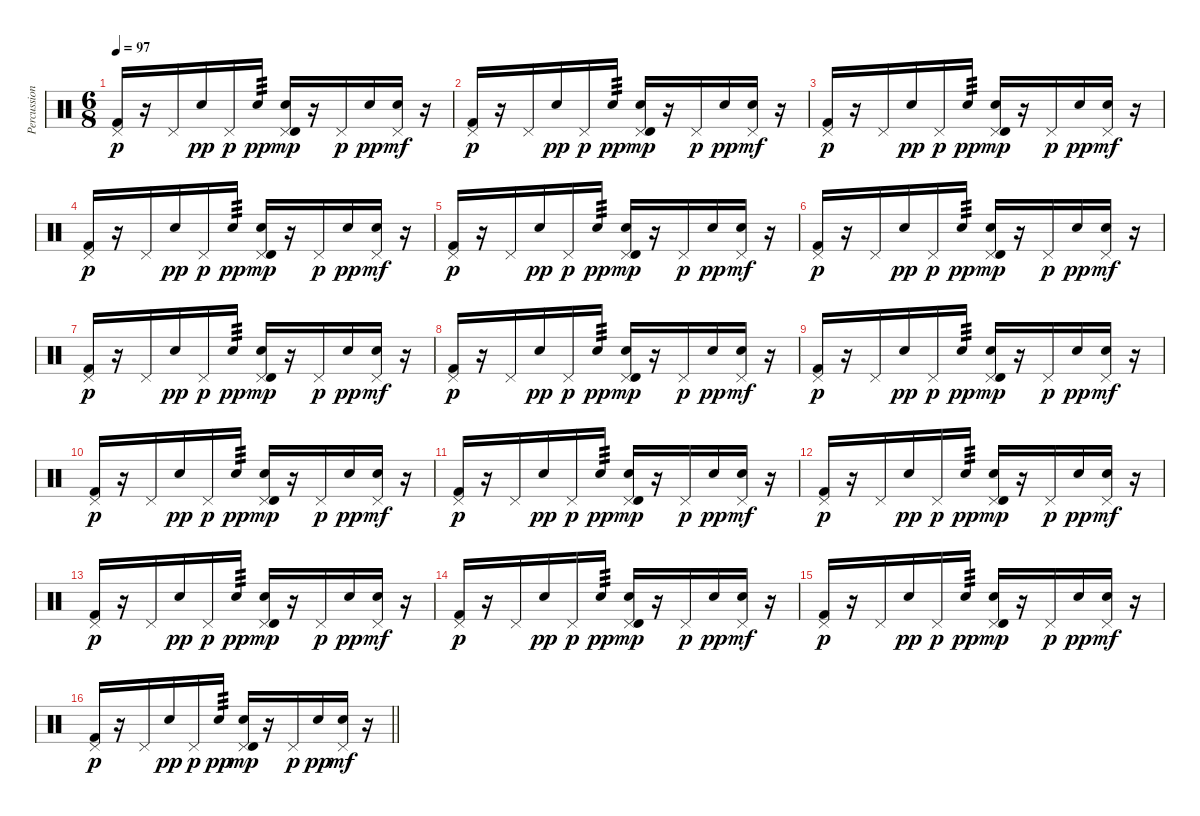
\track ("Percussion" "Percussion") {instrument percussion}
\staff {score}
\articulation defaults
\ts (6 8)
\tempo 97
\clef neutral
\ks c
("Pedal Hi-Hat (hit)" "Kick (hit) 2").16{dy p} r.16 "Pedal Hi-Hat (hit)".16 "Electric Snare (hit)".16{dy pp} "Pedal Hi-Hat (hit)".16{dy p} "Electric Snare (hit)".16{tp 3 dy pp} ("Pedal Hi-Hat (hit)" "Timbale high (hit)" "Electric Snare (hit)").16{dy mp} r.16 "Pedal Hi-Hat (hit)".16{dy p} "Snare (hit) 2".16{dy pp} ("Pedal Hi-Hat (hit)" "Electric Snare (hit)").16{dy mf} r.16 |
("Pedal Hi-Hat (hit)" "Kick (hit) 2").16{dy p} r.16 "Pedal Hi-Hat (hit)".16 "Electric Snare (hit)".16{dy pp} "Pedal Hi-Hat (hit)".16{dy p} "Electric Snare (hit)".16{tp 3 dy pp} ("Pedal Hi-Hat (hit)" "Timbale high (hit)" "Electric Snare (hit)").16{dy mp} r.16 "Pedal Hi-Hat (hit)".16{dy p} "Snare (hit) 2".16{dy pp} ("Pedal Hi-Hat (hit)" "Electric Snare (hit)").16{dy mf} r.16 |
("Pedal Hi-Hat (hit)" "Kick (hit) 2").16{dy p} r.16 "Pedal Hi-Hat (hit)".16 "Electric Snare (hit)".16{dy pp} "Pedal Hi-Hat (hit)".16{dy p} "Electric Snare (hit)".16{tp 3 dy pp} ("Pedal Hi-Hat (hit)" "Timbale high (hit)" "Electric Snare (hit)").16{dy mp} r.16 "Pedal Hi-Hat (hit)".16{dy p} "Snare (hit) 2".16{dy pp} ("Pedal Hi-Hat (hit)" "Electric Snare (hit)").16{dy mf} r.16 |
("Pedal Hi-Hat (hit)" "Kick (hit) 2").16{dy p} r.16 "Pedal Hi-Hat (hit)".16 "Electric Snare (hit)".16{dy pp} "Pedal Hi-Hat (hit)".16{dy p} "Electric Snare (hit)".16{tp 3 dy pp} ("Pedal Hi-Hat (hit)" "Timbale high (hit)" "Electric Snare (hit)").16{dy mp} r.16 "Pedal Hi-Hat (hit)".16{dy p} "Snare (hit) 2".16{dy pp} ("Pedal Hi-Hat (hit)" "Electric Snare (hit)").16{dy mf} r.16 |
("Pedal Hi-Hat (hit)" "Kick (hit) 2").16{dy p} r.16 "Pedal Hi-Hat (hit)".16 "Electric Snare (hit)".16{dy pp} "Pedal Hi-Hat (hit)".16{dy p} "Electric Snare (hit)".16{tp 3 dy pp} ("Pedal Hi-Hat (hit)" "Timbale high (hit)" "Electric Snare (hit)").16{dy mp} r.16 "Pedal Hi-Hat (hit)".16{dy p} "Snare (hit) 2".16{dy pp} ("Pedal Hi-Hat (hit)" "Electric Snare (hit)").16{dy mf} r.16 |
("Pedal Hi-Hat (hit)" "Kick (hit) 2").16{dy p} r.16 "Pedal Hi-Hat (hit)".16 "Electric Snare (hit)".16{dy pp} "Pedal Hi-Hat (hit)".16{dy p} "Electric Snare (hit)".16{tp 3 dy pp} ("Pedal Hi-Hat (hit)" "Timbale high (hit)" "Electric Snare (hit)").16{dy mp} r.16 "Pedal Hi-Hat (hit)".16{dy p} "Snare (hit) 2".16{dy pp} ("Pedal Hi-Hat (hit)" "Electric Snare (hit)").16{dy mf} r.16 |
("Pedal Hi-Hat (hit)" "Kick (hit) 2").16{dy p} r.16 "Pedal Hi-Hat (hit)".16 "Electric Snare (hit)".16{dy pp} "Pedal Hi-Hat (hit)".16{dy p} "Electric Snare (hit)".16{tp 3 dy pp} ("Pedal Hi-Hat (hit)" "Timbale high (hit)" "Electric Snare (hit)").16{dy mp} r.16 "Pedal Hi-Hat (hit)".16{dy p} "Snare (hit) 2".16{dy pp} ("Pedal Hi-Hat (hit)" "Electric Snare (hit)").16{dy mf} r.16 |
("Pedal Hi-Hat (hit)" "Kick (hit) 2").16{dy p} r.16 "Pedal Hi-Hat (hit)".16 "Electric Snare (hit)".16{dy pp} "Pedal Hi-Hat (hit)".16{dy p} "Electric Snare (hit)".16{tp 3 dy pp} ("Pedal Hi-Hat (hit)" "Timbale high (hit)" "Electric Snare (hit)").16{dy mp} r.16 "Pedal Hi-Hat (hit)".16{dy p} "Snare (hit) 2".16{dy pp} ("Pedal Hi-Hat (hit)" "Electric Snare (hit)").16{dy mf} r.16 |
("Pedal Hi-Hat (hit)" "Kick (hit) 2").16{dy p} r.16 "Pedal Hi-Hat (hit)".16 "Electric Snare (hit)".16{dy pp} "Pedal Hi-Hat (hit)".16{dy p} "Electric Snare (hit)".16{tp 3 dy pp} ("Pedal Hi-Hat (hit)" "Timbale high (hit)" "Electric Snare (hit)").16{dy mp} r.16 "Pedal Hi-Hat (hit)".16{dy p} "Snare (hit) 2".16{dy pp} ("Pedal Hi-Hat (hit)" "Electric Snare (hit)").16{dy mf} r.16 |
("Pedal Hi-Hat (hit)" "Kick (hit) 2").16{dy p} r.16 "Pedal Hi-Hat (hit)".16 "Electric Snare (hit)".16{dy pp} "Pedal Hi-Hat (hit)".16{dy p} "Electric Snare (hit)".16{tp 3 dy pp} ("Pedal Hi-Hat (hit)" "Timbale high (hit)" "Electric Snare (hit)").16{dy mp} r.16 "Pedal Hi-Hat (hit)".16{dy p} "Snare (hit) 2".16{dy pp} ("Pedal Hi-Hat (hit)" "Electric Snare (hit)").16{dy mf} r.16 |
("Pedal Hi-Hat (hit)" "Kick (hit) 2").16{dy p} r.16 "Pedal Hi-Hat (hit)".16 "Electric Snare (hit)".16{dy pp} "Pedal Hi-Hat (hit)".16{dy p} "Electric Snare (hit)".16{tp 3 dy pp} ("Pedal Hi-Hat (hit)" "Timbale high (hit)" "Electric Snare (hit)").16{dy mp} r.16 "Pedal Hi-Hat (hit)".16{dy p} "Snare (hit) 2".16{dy pp} ("Pedal Hi-Hat (hit)" "Electric Snare (hit)").16{dy mf} r.16 |
("Pedal Hi-Hat (hit)" "Kick (hit) 2").16{dy p} r.16 "Pedal Hi-Hat (hit)".16 "Electric Snare (hit)".16{dy pp} "Pedal Hi-Hat (hit)".16{dy p} "Electric Snare (hit)".16{tp 3 dy pp} ("Pedal Hi-Hat (hit)" "Timbale high (hit)" "Electric Snare (hit)").16{dy mp} r.16 "Pedal Hi-Hat (hit)".16{dy p} "Snare (hit) 2".16{dy pp} ("Pedal Hi-Hat (hit)" "Electric Snare (hit)").16{dy mf} r.16 |
("Pedal Hi-Hat (hit)" "Kick (hit) 2").16{dy p} r.16 "Pedal Hi-Hat (hit)".16 "Electric Snare (hit)".16{dy pp} "Pedal Hi-Hat (hit)".16{dy p} "Electric Snare (hit)".16{tp 3 dy pp} ("Pedal Hi-Hat (hit)" "Timbale high (hit)" "Electric Snare (hit)").16{dy mp} r.16 "Pedal Hi-Hat (hit)".16{dy p} "Snare (hit) 2".16{dy pp} ("Pedal Hi-Hat (hit)" "Electric Snare (hit)").16{dy mf} r.16 |
("Pedal Hi-Hat (hit)" "Kick (hit) 2").16{dy p} r.16 "Pedal Hi-Hat (hit)".16 "Electric Snare (hit)".16{dy pp} "Pedal Hi-Hat (hit)".16{dy p} "Electric Snare (hit)".16{tp 3 dy pp} ("Pedal Hi-Hat (hit)" "Timbale high (hit)" "Electric Snare (hit)").16{dy mp} r.16 "Pedal Hi-Hat (hit)".16{dy p} "Snare (hit) 2".16{dy pp} ("Pedal Hi-Hat (hit)" "Electric Snare (hit)").16{dy mf} r.16 |
("Pedal Hi-Hat (hit)" "Kick (hit) 2").16{dy p} r.16 "Pedal Hi-Hat (hit)".16 "Electric Snare (hit)".16{dy pp} "Pedal Hi-Hat (hit)".16{dy p} "Electric Snare (hit)".16{tp 3 dy pp} ("Pedal Hi-Hat (hit)" "Timbale high (hit)" "Electric Snare (hit)").16{dy mp} r.16 "Pedal Hi-Hat (hit)".16{dy p} "Snare (hit) 2".16{dy pp} ("Pedal Hi-Hat (hit)" "Electric Snare (hit)").16{dy mf} r.16 |
\barLineRight lightlight
("Pedal Hi-Hat (hit)" "Kick (hit) 2").16{dy p} r.16 "Pedal Hi-Hat (hit)".16 "Electric Snare (hit)".16{dy pp} "Pedal Hi-Hat (hit)".16{dy p} "Electric Snare (hit)".16{tp 3 dy pp} ("Pedal Hi-Hat (hit)" "Timbale high (hit)" "Electric Snare (hit)").16{dy mp} r.16 "Pedal Hi-Hat (hit)".16{dy p} "Snare (hit) 2".16{dy pp} ("Pedal Hi-Hat (hit)" "Electric Snare (hit)").16{dy mf} r.16
